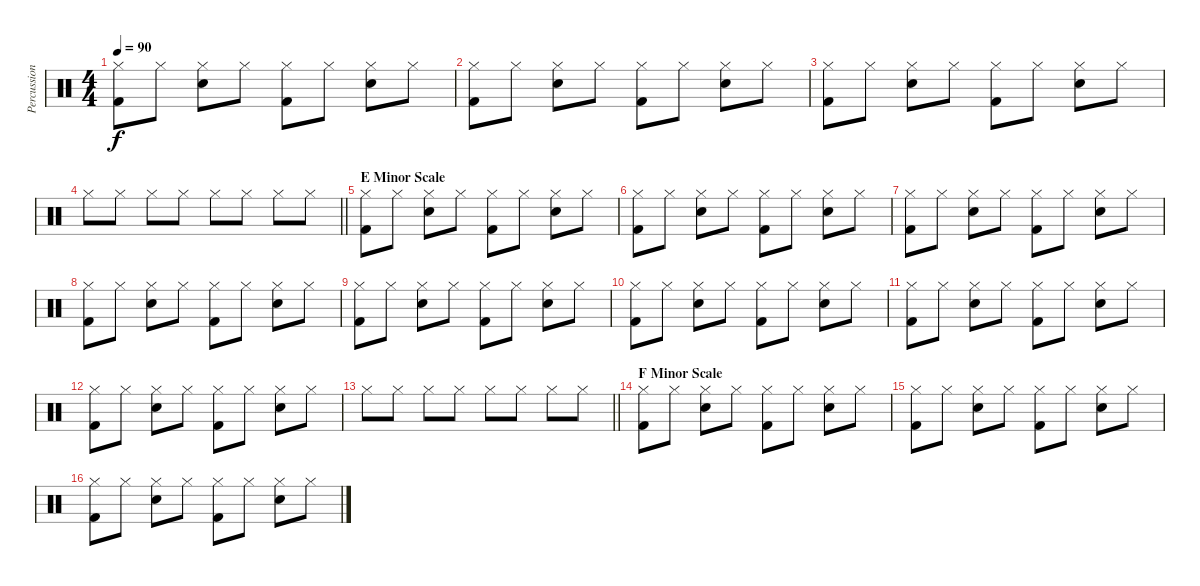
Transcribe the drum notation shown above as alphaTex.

\track ("Percussion" "Percussion") {instrument percussion}
\staff {score}
\articulation defaults
\ts (4 4)
\tempo 90
\clef neutral
\ks c
("Kick (hit) 2" "Hi-Hat (closed)").8{dy f} "Hi-Hat (closed)".8 ("Snare (hit) 2" "Hi-Hat (closed)").8 "Hi-Hat (closed)".8 ("Kick (hit) 2" "Hi-Hat (closed)").8 "Hi-Hat (closed)".8 ("Snare (hit) 2" "Hi-Hat (closed)").8 "Hi-Hat (closed)".8 |
("Kick (hit) 2" "Hi-Hat (closed)").8 "Hi-Hat (closed)".8 ("Snare (hit) 2" "Hi-Hat (closed)").8 "Hi-Hat (closed)".8 ("Kick (hit) 2" "Hi-Hat (closed)").8 "Hi-Hat (closed)".8 ("Snare (hit) 2" "Hi-Hat (closed)").8 "Hi-Hat (closed)".8 |
("Kick (hit) 2" "Hi-Hat (closed)").8 "Hi-Hat (closed)".8 ("Snare (hit) 2" "Hi-Hat (closed)").8 "Hi-Hat (closed)".8 ("Kick (hit) 2" "Hi-Hat (closed)").8 "Hi-Hat (closed)".8 ("Snare (hit) 2" "Hi-Hat (closed)").8 "Hi-Hat (closed)".8 |
\barLineRight lightlight "Hi-Hat (closed)".8 "Hi-Hat (closed)".8 "Hi-Hat (closed)".8 "Hi-Hat (closed)".8 "Hi-Hat (closed)".8 "Hi-Hat (closed)".8 "Hi-Hat (closed)".8 "Hi-Hat (closed)".8
|
\section ("" "E Minor Scale")
("Kick (hit) 2" "Hi-Hat (closed)").8 "Hi-Hat (closed)".8 ("Snare (hit) 2" "Hi-Hat (closed)").8 "Hi-Hat (closed)".8 ("Kick (hit) 2" "Hi-Hat (closed)").8 "Hi-Hat (closed)".8 ("Snare (hit) 2" "Hi-Hat (closed)").8 "Hi-Hat (closed)".8 |
("Kick (hit) 2" "Hi-Hat (closed)").8 "Hi-Hat (closed)".8 ("Snare (hit) 2" "Hi-Hat (closed)").8 "Hi-Hat (closed)".8 ("Kick (hit) 2" "Hi-Hat (closed)").8 "Hi-Hat (closed)".8 ("Snare (hit) 2" "Hi-Hat (closed)").8 "Hi-Hat (closed)".8 |
("Kick (hit) 2" "Hi-Hat (closed)").8 "Hi-Hat (closed)".8 ("Snare (hit) 2" "Hi-Hat (closed)").8 "Hi-Hat (closed)".8 ("Kick (hit) 2" "Hi-Hat (closed)").8 "Hi-Hat (closed)".8 ("Snare (hit) 2" "Hi-Hat (closed)").8 "Hi-Hat (closed)".8 |
("Kick (hit) 2" "Hi-Hat (closed)").8 "Hi-Hat (closed)".8 ("Snare (hit) 2" "Hi-Hat (closed)").8 "Hi-Hat (closed)".8 ("Kick (hit) 2" "Hi-Hat (closed)").8 "Hi-Hat (closed)".8 ("Snare (hit) 2" "Hi-Hat (closed)").8 "Hi-Hat (closed)".8 |
("Kick (hit) 2" "Hi-Hat (closed)").8 "Hi-Hat (closed)".8 ("Snare (hit) 2" "Hi-Hat (closed)").8 "Hi-Hat (closed)".8 ("Kick (hit) 2" "Hi-Hat (closed)").8 "Hi-Hat (closed)".8 ("Snare (hit) 2" "Hi-Hat (closed)").8 "Hi-Hat (closed)".8 |
("Kick (hit) 2" "Hi-Hat (closed)").8 "Hi-Hat (closed)".8 ("Snare (hit) 2" "Hi-Hat (closed)").8 "Hi-Hat (closed)".8 ("Kick (hit) 2" "Hi-Hat (closed)").8 "Hi-Hat (closed)".8 ("Snare (hit) 2" "Hi-Hat (closed)").8 "Hi-Hat (closed)".8 |
("Kick (hit) 2" "Hi-Hat (closed)").8 "Hi-Hat (closed)".8 ("Snare (hit) 2" "Hi-Hat (closed)").8 "Hi-Hat (closed)".8 ("Kick (hit) 2" "Hi-Hat (closed)").8 "Hi-Hat (closed)".8 ("Snare (hit) 2" "Hi-Hat (closed)").8 "Hi-Hat (closed)".8 |
("Kick (hit) 2" "Hi-Hat (closed)").8 "Hi-Hat (closed)".8 ("Snare (hit) 2" "Hi-Hat (closed)").8 "Hi-Hat (closed)".8 ("Kick (hit) 2" "Hi-Hat (closed)").8 "Hi-Hat (closed)".8 ("Snare (hit) 2" "Hi-Hat (closed)").8 "Hi-Hat (closed)".8 |
\barLineRight lightlight "Hi-Hat (closed)".8 "Hi-Hat (closed)".8 "Hi-Hat (closed)".8 "Hi-Hat (closed)".8 "Hi-Hat (closed)".8 "Hi-Hat (closed)".8 "Hi-Hat (closed)".8 "Hi-Hat (closed)".8
|
\section ("" "F Minor Scale")
("Kick (hit) 2" "Hi-Hat (closed)").8 "Hi-Hat (closed)".8 ("Snare (hit) 2" "Hi-Hat (closed)").8 "Hi-Hat (closed)".8 ("Kick (hit) 2" "Hi-Hat (closed)").8 "Hi-Hat (closed)".8 ("Snare (hit) 2" "Hi-Hat (closed)").8 "Hi-Hat (closed)".8 |
("Kick (hit) 2" "Hi-Hat (closed)").8 "Hi-Hat (closed)".8 ("Snare (hit) 2" "Hi-Hat (closed)").8 "Hi-Hat (closed)".8 ("Kick (hit) 2" "Hi-Hat (closed)").8 "Hi-Hat (closed)".8 ("Snare (hit) 2" "Hi-Hat (closed)").8 "Hi-Hat (closed)".8 |
("Kick (hit) 2" "Hi-Hat (closed)").8 "Hi-Hat (closed)".8 ("Snare (hit) 2" "Hi-Hat (closed)").8 "Hi-Hat (closed)".8 ("Kick (hit) 2" "Hi-Hat (closed)").8 "Hi-Hat (closed)".8 ("Snare (hit) 2" "Hi-Hat (closed)").8 "Hi-Hat (closed)".8
